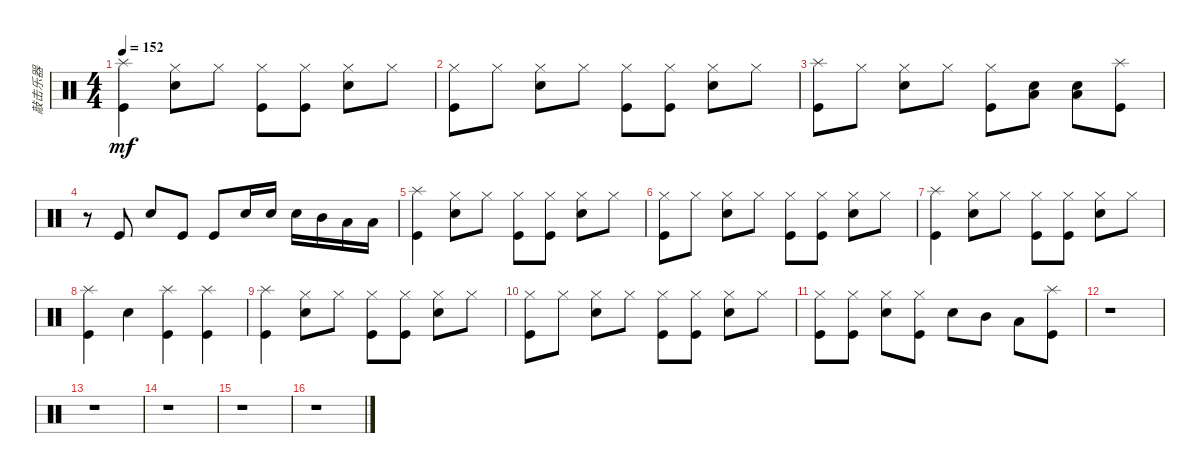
\track ("敲击乐器" "敲击乐器") {instrument percussion}
\staff {score}
\articulation defaults
\ts (4 4)
\tempo 152
\clef neutral
\ks c
("Splash (hit)" "Kick (hit)").4{dy mf} ("Hi-Hat (closed)" "Snare (hit) 2").8 "Hi-Hat (closed)".8 ("Hi-Hat (closed)" "Kick (hit)").8 ("Hi-Hat (closed)" "Kick (hit)").8 ("Hi-Hat (closed)" "Snare (hit) 2").8 "Hi-Hat (closed)".8 |
("Hi-Hat (closed)" "Kick (hit)").8 "Hi-Hat (closed)".8 ("Hi-Hat (closed)" "Snare (hit) 2").8 "Hi-Hat (closed)".8 ("Hi-Hat (closed)" "Kick (hit)").8 ("Hi-Hat (closed)" "Kick (hit)").8 ("Hi-Hat (closed)" "Snare (hit) 2").8 "Hi-Hat (closed)".8 |
("Splash (hit)" "Kick (hit)").8 "Hi-Hat (closed)".8 ("Hi-Hat (closed)" "Snare (hit) 2").8 "Hi-Hat (closed)".8 ("Hi-Hat (closed)" "Kick (hit)").8 ("Snare (hit) 2" "Low Floor Tom (hit)").8 ("Snare (hit) 2" "Low Floor Tom (hit)").8 ("Splash (hit)" "Kick (hit)").8 |
r.8 "Kick (hit)".8 "Snare (hit) 2".8 "Kick (hit)".8 "Kick (hit)".8 "Snare (hit) 2".16 "Snare (hit) 2".16 "Snare (hit) 2".16 "Mid Tom (hit)".16 "Low Tom (hit)".16 "Low Floor Tom (hit)".16 |
("Splash (hit)" "Kick (hit)").4 ("Hi-Hat (closed)" "Snare (hit) 2").8 "Hi-Hat (closed)".8 ("Hi-Hat (closed)" "Kick (hit)").8 ("Hi-Hat (closed)" "Kick (hit)").8 ("Hi-Hat (closed)" "Snare (hit) 2").8 "Hi-Hat (closed)".8 |
("Hi-Hat (closed)" "Kick (hit)").8 "Hi-Hat (closed)".8 ("Hi-Hat (closed)" "Snare (hit) 2").8 "Hi-Hat (closed)".8 ("Hi-Hat (closed)" "Kick (hit)").8 ("Hi-Hat (closed)" "Kick (hit)").8 ("Hi-Hat (closed)" "Snare (hit) 2").8 "Hi-Hat (closed)".8 |
("Splash (hit)" "Kick (hit)").4 ("Hi-Hat (closed)" "Snare (hit) 2").8 "Hi-Hat (closed)".8 ("Hi-Hat (closed)" "Kick (hit)").8 ("Hi-Hat (closed)" "Kick (hit)").8 ("Hi-Hat (closed)" "Snare (hit) 2").8 "Hi-Hat (closed)".8 |
("Splash (hit)" "Kick (hit)").4 "Snare (hit) 2".4 ("Splash (hit)" "Kick (hit)").4 ("Splash (hit)" "Kick (hit)").4 |
("Splash (hit)" "Kick (hit)").4 ("Hi-Hat (closed)" "Snare (hit) 2").8 "Hi-Hat (closed)".8 ("Hi-Hat (closed)" "Kick (hit)").8 ("Hi-Hat (closed)" "Kick (hit)").8 ("Hi-Hat (closed)" "Snare (hit) 2").8 "Hi-Hat (closed)".8 |
("Hi-Hat (closed)" "Kick (hit)").8 "Hi-Hat (closed)".8 ("Hi-Hat (closed)" "Snare (hit) 2").8 "Hi-Hat (closed)".8 ("Hi-Hat (closed)" "Kick (hit)").8 ("Hi-Hat (closed)" "Kick (hit)").8 ("Hi-Hat (closed)" "Snare (hit) 2").8 "Hi-Hat (closed)".8 |
("Hi-Hat (closed)" "Kick (hit)").8 ("Hi-Hat (closed)" "Kick (hit)").8 ("Hi-Hat (closed)" "Snare (hit) 2").8 ("Hi-Hat (closed)" "Kick (hit)").8 "Snare (hit) 2".8 "Mid Tom (hit)".8 "Low Tom (hit)".8 ("Splash (hit)" "Kick (hit)").8 |
r.1 |
r.1 |
r.1 |
r.1 |
r.1
